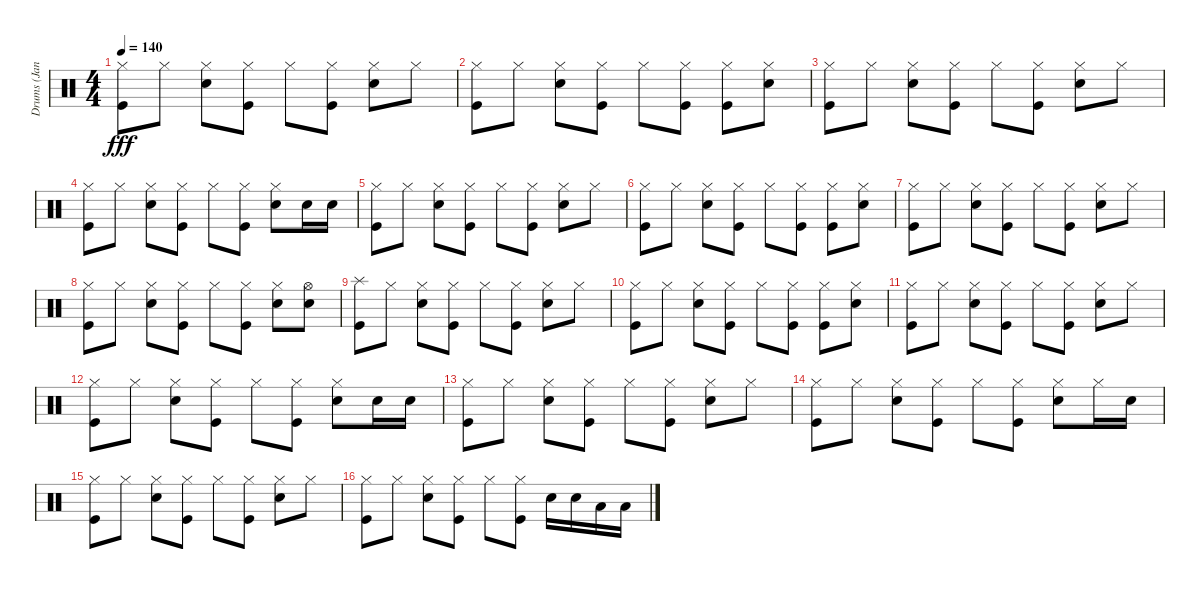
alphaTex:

\track ("Drums (Janet)" "Drums (Jan") {instrument percussion}
\staff {score}
\articulation defaults
\ts (4 4)
\tempo 140
\clef neutral
\ks c
("Hi-Hat (closed)" "Kick (hit)").8{dy fff} "Hi-Hat (closed)".8 ("Hi-Hat (closed)" "Snare (hit) 2").8 ("Hi-Hat (closed)" "Kick (hit)").8 "Hi-Hat (closed)".8 ("Hi-Hat (closed)" "Kick (hit)").8 ("Hi-Hat (closed)" "Snare (hit) 2").8 "Hi-Hat (closed)".8 |
("Hi-Hat (closed)" "Kick (hit)").8 "Hi-Hat (closed)".8 ("Hi-Hat (closed)" "Snare (hit) 2").8 ("Hi-Hat (closed)" "Kick (hit)").8 "Hi-Hat (closed)".8 ("Hi-Hat (closed)" "Kick (hit)").8 ("Hi-Hat (closed)" "Kick (hit)").8 ("Hi-Hat (closed)" "Snare (hit) 2").8 |
("Hi-Hat (closed)" "Kick (hit)").8 "Hi-Hat (closed)".8 ("Hi-Hat (closed)" "Snare (hit) 2").8 ("Hi-Hat (closed)" "Kick (hit)").8 "Hi-Hat (closed)".8 ("Hi-Hat (closed)" "Kick (hit)").8 ("Hi-Hat (closed)" "Snare (hit) 2").8 "Hi-Hat (closed)".8 |
("Hi-Hat (closed)" "Kick (hit)").8 "Hi-Hat (closed)".8 ("Hi-Hat (closed)" "Snare (hit) 2").8 ("Hi-Hat (closed)" "Kick (hit)").8 "Hi-Hat (closed)".8 ("Hi-Hat (closed)" "Kick (hit)").8 ("Hi-Hat (closed)" "Snare (hit) 2").8 "Snare (hit) 2".16 "Snare (hit) 2".16 |
("Hi-Hat (closed)" "Kick (hit)").8 "Hi-Hat (closed)".8 ("Hi-Hat (closed)" "Snare (hit) 2").8 ("Hi-Hat (closed)" "Kick (hit)").8 "Hi-Hat (closed)".8 ("Hi-Hat (closed)" "Kick (hit)").8 ("Hi-Hat (closed)" "Snare (hit) 2").8 "Hi-Hat (closed)".8 |
("Hi-Hat (closed)" "Kick (hit)").8 "Hi-Hat (closed)".8 ("Hi-Hat (closed)" "Snare (hit) 2").8 ("Hi-Hat (closed)" "Kick (hit)").8 "Hi-Hat (closed)".8 ("Hi-Hat (closed)" "Kick (hit)").8 ("Hi-Hat (closed)" "Kick (hit)").8 ("Hi-Hat (closed)" "Snare (hit) 2").8 |
("Hi-Hat (closed)" "Kick (hit)").8 "Hi-Hat (closed)".8 ("Hi-Hat (closed)" "Snare (hit) 2").8 ("Hi-Hat (closed)" "Kick (hit)").8 "Hi-Hat (closed)".8 ("Hi-Hat (closed)" "Kick (hit)").8 ("Hi-Hat (closed)" "Snare (hit) 2").8 "Hi-Hat (closed)".8 |
("Hi-Hat (closed)" "Kick (hit)").8 "Hi-Hat (closed)".8 ("Hi-Hat (closed)" "Snare (hit) 2").8 ("Hi-Hat (closed)" "Kick (hit)").8 "Hi-Hat (closed)".8 ("Hi-Hat (closed)" "Kick (hit)").8 ("Hi-Hat (closed)" "Snare (hit) 2").8 ("Hi-Hat (open)" "Snare (hit) 2").8 |
("Splash (hit)" "Kick (hit)").8 "Hi-Hat (closed)".8 ("Hi-Hat (closed)" "Snare (hit) 2").8 ("Hi-Hat (closed)" "Kick (hit)").8 "Hi-Hat (closed)".8 ("Hi-Hat (closed)" "Kick (hit)").8 ("Hi-Hat (closed)" "Snare (hit) 2").8 "Hi-Hat (closed)".8 |
("Hi-Hat (closed)" "Kick (hit)").8 "Hi-Hat (closed)".8 ("Hi-Hat (closed)" "Snare (hit) 2").8 ("Hi-Hat (closed)" "Kick (hit)").8 "Hi-Hat (closed)".8 ("Hi-Hat (closed)" "Kick (hit)").8 ("Hi-Hat (closed)" "Kick (hit)").8 ("Hi-Hat (closed)" "Snare (hit) 2").8 |
("Hi-Hat (closed)" "Kick (hit)").8 "Hi-Hat (closed)".8 ("Hi-Hat (closed)" "Snare (hit) 2").8 ("Hi-Hat (closed)" "Kick (hit)").8 "Hi-Hat (closed)".8 ("Hi-Hat (closed)" "Kick (hit)").8 ("Hi-Hat (closed)" "Snare (hit) 2").8 "Hi-Hat (closed)".8 |
("Hi-Hat (closed)" "Kick (hit)").8 "Hi-Hat (closed)".8 ("Hi-Hat (closed)" "Snare (hit) 2").8 ("Hi-Hat (closed)" "Kick (hit)").8 "Hi-Hat (closed)".8 ("Hi-Hat (closed)" "Kick (hit)").8 ("Hi-Hat (closed)" "Snare (hit) 2").8 "Snare (hit) 2".16 "Snare (hit) 2".16 |
("Hi-Hat (closed)" "Kick (hit)").8 "Hi-Hat (closed)".8 ("Hi-Hat (closed)" "Snare (hit) 2").8 ("Hi-Hat (closed)" "Kick (hit)").8 "Hi-Hat (closed)".8 ("Hi-Hat (closed)" "Kick (hit)").8 ("Hi-Hat (closed)" "Snare (hit) 2").8 "Hi-Hat (closed)".8 |
("Hi-Hat (closed)" "Kick (hit)").8 "Hi-Hat (closed)".8 ("Hi-Hat (closed)" "Snare (hit) 2").8 ("Hi-Hat (closed)" "Kick (hit)").8 "Hi-Hat (closed)".8 ("Hi-Hat (closed)" "Kick (hit)").8 ("Hi-Hat (closed)" "Snare (hit) 2").8 "Hi-Hat (closed)".16 "Snare (hit) 2".16 |
("Hi-Hat (closed)" "Kick (hit)").8 "Hi-Hat (closed)".8 ("Hi-Hat (closed)" "Snare (hit) 2").8 ("Hi-Hat (closed)" "Kick (hit)").8 "Hi-Hat (closed)".8 ("Hi-Hat (closed)" "Kick (hit)").8 ("Hi-Hat (closed)" "Snare (hit) 2").8 "Hi-Hat (closed)".8 |
("Hi-Hat (closed)" "Kick (hit)").8 "Hi-Hat (closed)".8 ("Hi-Hat (closed)" "Snare (hit) 2").8 ("Hi-Hat (closed)" "Kick (hit)").8 "Hi-Hat (closed)".8 ("Hi-Hat (closed)" "Kick (hit)").8 "Snare (hit) 2".16 "Snare (hit) 2".16 "Low Tom (hit)".16 "Low Tom (hit)".16
